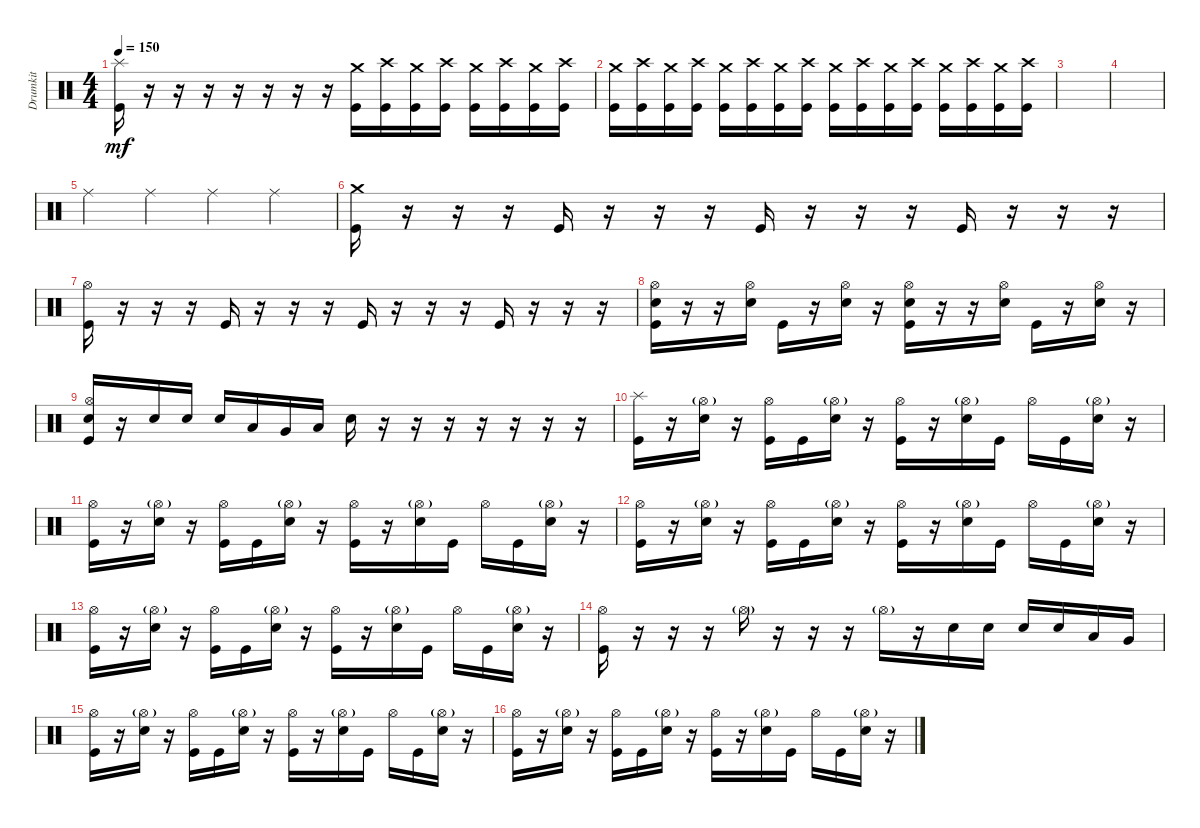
\track ("Drumkit" "Drumkit") {instrument percussion}
\staff {score}
\articulation defaults
\ts (4 4)
\tempo 150
\clef neutral
\ks c
("Kick (hit)" "Splash (hit)").16{dy mf} r.16 r.16 r.16 r.16 r.16 r.16 r.16 ("Crash medium (hit)" "Kick (hit)").16 ("Crash high (hit)" "Kick (hit)").16 ("Crash medium (hit)" "Kick (hit)").16 ("Crash high (hit)" "Kick (hit)").16 ("Crash medium (hit)" "Kick (hit)").16 ("Crash high (hit)" "Kick (hit)").16 ("Crash medium (hit)" "Kick (hit)").16 ("Crash high (hit)" "Kick (hit)").16 |
("Crash medium (hit)" "Kick (hit)").16 ("Crash high (hit)" "Kick (hit)").16 ("Crash medium (hit)" "Kick (hit)").16 ("Crash high (hit)" "Kick (hit)").16 ("Crash medium (hit)" "Kick (hit)").16 ("Crash high (hit)" "Kick (hit)").16 ("Crash medium (hit)" "Kick (hit)").16 ("Crash high (hit)" "Kick (hit)").16 ("Crash medium (hit)" "Kick (hit)").16 ("Crash high (hit)" "Kick (hit)").16 ("Crash medium (hit)" "Kick (hit)").16 ("Crash high (hit)" "Kick (hit)").16 ("Crash medium (hit)" "Kick (hit)").16 ("Crash high (hit)" "Kick (hit)").16 ("Crash medium (hit)" "Kick (hit)").16 ("Crash high (hit)" "Kick (hit)").16 |
|
|
"Ride (middle)".4 "Ride (middle)".4 "Ride (middle)".4 "Ride (middle)".4 |
("Kick (hit)" "Crash medium (hit)").16 r.16 r.16 r.16 "Kick (hit)".16 r.16 r.16 r.16 "Kick (hit)".16 r.16 r.16 r.16 "Kick (hit)".16 r.16 r.16 r.16 |
("Kick (hit)" "Hi-Hat (open)").16 r.16 r.16 r.16 "Kick (hit)".16 r.16 r.16 r.16 "Kick (hit)".16 r.16 r.16 r.16 "Kick (hit)".16 r.16 r.16 r.16 |
("Kick (hit)" "Snare (hit) 2" "Hi-Hat (open)").16 r.16 r.16 ("Snare (hit) 2" "Hi-Hat (open)").16 "Kick (hit)".16 r.16 ("Snare (hit) 2" "Hi-Hat (open)").16 r.16 ("Kick (hit)" "Snare (hit) 2" "Hi-Hat (open)").16 r.16 r.16 ("Snare (hit) 2" "Hi-Hat (open)").16 "Kick (hit)".16 r.16 ("Snare (hit) 2" "Hi-Hat (open)").16 r.16 |
("Kick (hit)" "Hi-Hat (open)" "Snare (hit) 2").16 r.16 "Snare (hit) 2".16 "Snare (hit) 2".16 "Snare (hit) 2".16 "Low Tom (hit)".16 "Very Low Tom (hit)".16 "Low Floor Tom (hit)".16 "Snare (hit) 2".16 r.16 r.16 r.16 r.16 r.16 r.16 r.16 |
("Kick (hit)" "Splash (hit)").16 r.16 ("Snare (hit) 2" "Hi-Hat (open)"{g}).16 r.16 ("Kick (hit)" "Hi-Hat (open)").16 "Kick (hit)".16 ("Snare (hit) 2" "Hi-Hat (open)"{g}).16 r.16 ("Kick (hit)" "Hi-Hat (open)").16 r.16 ("Snare (hit) 2" "Hi-Hat (open)"{g}).16 "Kick (hit)".16 "Hi-Hat (open)".16 "Kick (hit)".16 ("Snare (hit) 2" "Hi-Hat (open)"{g}).16 r.16 |
("Kick (hit)" "Hi-Hat (open)").16 r.16 ("Snare (hit) 2" "Hi-Hat (open)"{g}).16 r.16 ("Kick (hit)" "Hi-Hat (open)").16 "Kick (hit)".16 ("Snare (hit) 2" "Hi-Hat (open)"{g}).16 r.16 ("Kick (hit)" "Hi-Hat (open)").16 r.16 ("Snare (hit) 2" "Hi-Hat (open)"{g}).16 "Kick (hit)".16 "Hi-Hat (open)".16 "Kick (hit)".16 ("Snare (hit) 2" "Hi-Hat (open)"{g}).16 r.16 |
("Kick (hit)" "Hi-Hat (open)").16 r.16 ("Snare (hit) 2" "Hi-Hat (open)"{g}).16 r.16 ("Kick (hit)" "Hi-Hat (open)").16 "Kick (hit)".16 ("Snare (hit) 2" "Hi-Hat (open)"{g}).16 r.16 ("Kick (hit)" "Hi-Hat (open)").16 r.16 ("Snare (hit) 2" "Hi-Hat (open)"{g}).16 "Kick (hit)".16 "Hi-Hat (open)".16 "Kick (hit)".16 ("Snare (hit) 2" "Hi-Hat (open)"{g}).16 r.16 |
("Kick (hit)" "Hi-Hat (open)").16 r.16 ("Snare (hit) 2" "Hi-Hat (open)"{g}).16 r.16 ("Kick (hit)" "Hi-Hat (open)").16 "Kick (hit)".16 ("Snare (hit) 2" "Hi-Hat (open)"{g}).16 r.16 ("Kick (hit)" "Hi-Hat (open)").16 r.16 ("Snare (hit) 2" "Hi-Hat (open)"{g}).16 "Kick (hit)".16 "Hi-Hat (open)".16 "Kick (hit)".16 ("Snare (hit) 2" "Hi-Hat (open)"{g}).16 r.16 |
("Hi-Hat (open)" "Kick (hit)").16 r.16 r.16 r.16 "Hi-Hat (open)"{g}.16 r.16 r.16 r.16 "Hi-Hat (open)"{g}.16 r.16 "Snare (hit) 2".16 "Snare (hit) 2".16 "Snare (hit) 2".16 "Snare (hit) 2".16 "Low Tom (hit)".16 "Very Low Tom (hit)".16 |
("Kick (hit)" "Hi-Hat (open)").16 r.16 ("Snare (hit) 2" "Hi-Hat (open)"{g}).16 r.16 ("Kick (hit)" "Hi-Hat (open)").16 "Kick (hit)".16 ("Snare (hit) 2" "Hi-Hat (open)"{g}).16 r.16 ("Kick (hit)" "Hi-Hat (open)").16 r.16 ("Snare (hit) 2" "Hi-Hat (open)"{g}).16 "Kick (hit)".16 "Hi-Hat (open)".16 "Kick (hit)".16 ("Snare (hit) 2" "Hi-Hat (open)"{g}).16 r.16 |
("Kick (hit)" "Hi-Hat (open)").16 r.16 ("Snare (hit) 2" "Hi-Hat (open)"{g}).16 r.16 ("Kick (hit)" "Hi-Hat (open)").16 "Kick (hit)".16 ("Snare (hit) 2" "Hi-Hat (open)"{g}).16 r.16 ("Kick (hit)" "Hi-Hat (open)").16 r.16 ("Snare (hit) 2" "Hi-Hat (open)"{g}).16 "Kick (hit)".16 "Hi-Hat (open)".16 "Kick (hit)".16 ("Snare (hit) 2" "Hi-Hat (open)"{g}).16 r.16
